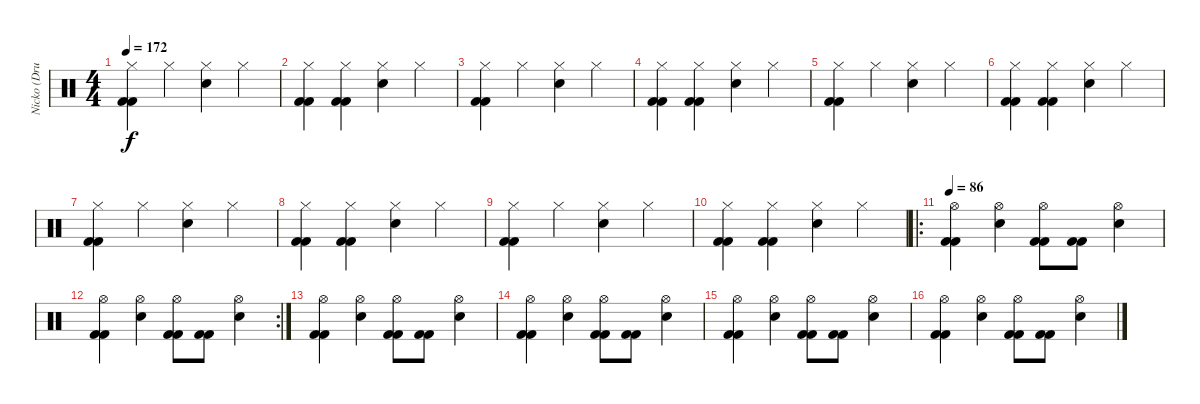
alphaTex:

\track ("Nicko (Drums)" "Nicko (Dru") {instrument percussion}
\staff {score}
\articulation defaults
\ts (4 4)
\tempo 172
\clef neutral
\ks c
("Hi-Hat (closed)" "Kick (hit) 2" "Kick (hit) 2").4{dy f} "Hi-Hat (closed)".4 ("Hi-Hat (closed)" "Snare (hit) 2").4 "Hi-Hat (closed)".4 |
("Hi-Hat (closed)" "Kick (hit) 2" "Kick (hit) 2").4 ("Hi-Hat (closed)" "Kick (hit) 2" "Kick (hit) 2").4 ("Hi-Hat (closed)" "Snare (hit) 2").4 "Hi-Hat (closed)".4 |
("Hi-Hat (closed)" "Kick (hit) 2" "Kick (hit) 2").4 "Hi-Hat (closed)".4 ("Hi-Hat (closed)" "Snare (hit) 2").4 "Hi-Hat (closed)".4 |
("Hi-Hat (closed)" "Kick (hit) 2" "Kick (hit) 2").4 ("Hi-Hat (closed)" "Kick (hit) 2" "Kick (hit) 2").4 ("Hi-Hat (closed)" "Snare (hit) 2").4 "Hi-Hat (closed)".4 |
("Hi-Hat (closed)" "Kick (hit) 2" "Kick (hit) 2").4 "Hi-Hat (closed)".4 ("Hi-Hat (closed)" "Snare (hit) 2").4 "Hi-Hat (closed)".4 |
("Hi-Hat (closed)" "Kick (hit) 2" "Kick (hit) 2").4 ("Hi-Hat (closed)" "Kick (hit) 2" "Kick (hit) 2").4 ("Hi-Hat (closed)" "Snare (hit) 2").4 "Hi-Hat (closed)".4 |
("Hi-Hat (closed)" "Kick (hit) 2" "Kick (hit) 2").4 "Hi-Hat (closed)".4 ("Hi-Hat (closed)" "Snare (hit) 2").4 "Hi-Hat (closed)".4 |
("Hi-Hat (closed)" "Kick (hit) 2" "Kick (hit) 2").4 ("Hi-Hat (closed)" "Kick (hit) 2" "Kick (hit) 2").4 ("Hi-Hat (closed)" "Snare (hit) 2").4 "Hi-Hat (closed)".4 |
("Hi-Hat (closed)" "Kick (hit) 2" "Kick (hit) 2").4 "Hi-Hat (closed)".4 ("Hi-Hat (closed)" "Snare (hit) 2").4 "Hi-Hat (closed)".4 |
("Hi-Hat (closed)" "Kick (hit) 2" "Kick (hit) 2").4 ("Hi-Hat (closed)" "Kick (hit) 2" "Kick (hit) 2").4 ("Hi-Hat (closed)" "Snare (hit) 2").4 "Hi-Hat (closed)".4 |
\ro
\tempo 86
("Hi-Hat (open)" "Kick (hit) 2" "Kick (hit) 2").4 ("Hi-Hat (open)" "Snare (hit) 2").4 ("Hi-Hat (open)" "Kick (hit) 2" "Kick (hit) 2").8 ("Kick (hit) 2" "Kick (hit) 2").8 ("Hi-Hat (open)" "Snare (hit) 2").4 |
\rc 2
("Hi-Hat (open)" "Kick (hit) 2" "Kick (hit) 2").4 ("Hi-Hat (open)" "Snare (hit) 2").4 ("Hi-Hat (open)" "Kick (hit) 2" "Kick (hit) 2").8 ("Kick (hit) 2" "Kick (hit) 2").8 ("Hi-Hat (open)" "Snare (hit) 2").4 |
("Hi-Hat (open)" "Kick (hit) 2" "Kick (hit) 2").4 ("Hi-Hat (open)" "Snare (hit) 2").4 ("Hi-Hat (open)" "Kick (hit) 2" "Kick (hit) 2").8 ("Kick (hit) 2" "Kick (hit) 2").8 ("Hi-Hat (open)" "Snare (hit) 2").4 |
("Hi-Hat (open)" "Kick (hit) 2" "Kick (hit) 2").4 ("Hi-Hat (open)" "Snare (hit) 2").4 ("Hi-Hat (open)" "Kick (hit) 2" "Kick (hit) 2").8 ("Kick (hit) 2" "Kick (hit) 2").8 ("Hi-Hat (open)" "Snare (hit) 2").4 |
("Hi-Hat (open)" "Kick (hit) 2" "Kick (hit) 2").4 ("Hi-Hat (open)" "Snare (hit) 2").4 ("Hi-Hat (open)" "Kick (hit) 2" "Kick (hit) 2").8 ("Kick (hit) 2" "Kick (hit) 2").8 ("Hi-Hat (open)" "Snare (hit) 2").4 |
("Hi-Hat (open)" "Kick (hit) 2" "Kick (hit) 2").4 ("Hi-Hat (open)" "Snare (hit) 2").4 ("Hi-Hat (open)" "Kick (hit) 2" "Kick (hit) 2").8 ("Kick (hit) 2" "Kick (hit) 2").8 ("Hi-Hat (open)" "Snare (hit) 2").4
